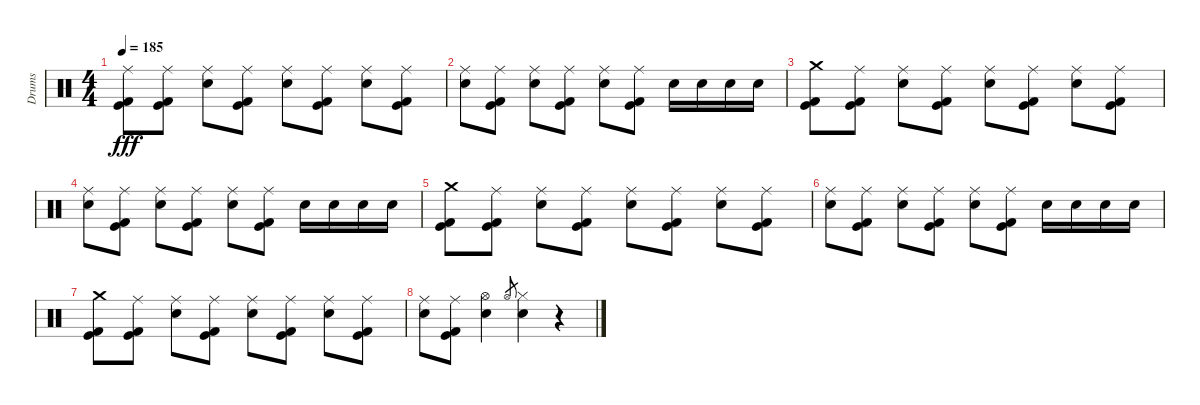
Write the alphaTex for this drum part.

\track ("Drums" "Drums") {instrument percussion}
\staff {score}
\articulation defaults
\ts (4 4)
\tempo 185
\clef neutral
\ks c
("Ride (middle)" "Kick (hit)" "Kick (hit) 2").8{dy fff} ("Ride (middle)" "Kick (hit)" "Kick (hit) 2").8 ("Ride (middle)" "Snare (hit) 2").8 ("Ride (middle)" "Kick (hit)" "Kick (hit) 2").8 ("Ride (middle)" "Snare (hit) 2").8 ("Ride (middle)" "Kick (hit)" "Kick (hit) 2").8 ("Ride (middle)" "Snare (hit) 2").8 ("Ride (middle)" "Kick (hit)" "Kick (hit) 2").8 |
("Ride (middle)" "Snare (hit) 2").8 ("Ride (middle)" "Kick (hit)" "Kick (hit) 2").8 ("Ride (middle)" "Snare (hit) 2").8 ("Ride (middle)" "Kick (hit)" "Kick (hit) 2").8 ("Ride (middle)" "Snare (hit) 2").8 ("Ride (middle)" "Kick (hit)" "Kick (hit) 2").8 "Snare (hit) 2".16 "Snare (hit) 2".16 "Snare (hit) 2".16 "Snare (hit) 2".16 |
("Crash medium (hit)" "Kick (hit)" "Kick (hit) 2").8 ("Ride (middle)" "Kick (hit)" "Kick (hit) 2").8 ("Ride (middle)" "Snare (hit) 2").8 ("Ride (middle)" "Kick (hit)" "Kick (hit) 2").8 ("Ride (middle)" "Snare (hit) 2").8 ("Ride (middle)" "Kick (hit)" "Kick (hit) 2").8 ("Ride (middle)" "Snare (hit) 2").8 ("Ride (middle)" "Kick (hit)" "Kick (hit) 2").8 |
("Ride (middle)" "Snare (hit) 2").8 ("Ride (middle)" "Kick (hit)" "Kick (hit) 2").8 ("Ride (middle)" "Snare (hit) 2").8 ("Ride (middle)" "Kick (hit)" "Kick (hit) 2").8 ("Ride (middle)" "Snare (hit) 2").8 ("Ride (middle)" "Kick (hit)" "Kick (hit) 2").8 "Snare (hit) 2".16 "Snare (hit) 2".16 "Snare (hit) 2".16 "Snare (hit) 2".16 |
("Crash medium (hit)" "Kick (hit)" "Kick (hit) 2").8 ("Ride (middle)" "Kick (hit)" "Kick (hit) 2").8 ("Ride (middle)" "Snare (hit) 2").8 ("Ride (middle)" "Kick (hit)" "Kick (hit) 2").8 ("Ride (middle)" "Snare (hit) 2").8 ("Ride (middle)" "Kick (hit)" "Kick (hit) 2").8 ("Ride (middle)" "Snare (hit) 2").8 ("Ride (middle)" "Kick (hit)" "Kick (hit) 2").8 |
("Ride (middle)" "Snare (hit) 2").8 ("Ride (middle)" "Kick (hit)" "Kick (hit) 2").8 ("Ride (middle)" "Snare (hit) 2").8 ("Ride (middle)" "Kick (hit)" "Kick (hit) 2").8 ("Ride (middle)" "Snare (hit) 2").8 ("Ride (middle)" "Kick (hit)" "Kick (hit) 2").8 "Snare (hit) 2".16 "Snare (hit) 2".16 "Snare (hit) 2".16 "Snare (hit) 2".16 |
("Crash medium (hit)" "Kick (hit)" "Kick (hit) 2").8 ("Ride (middle)" "Kick (hit)" "Kick (hit) 2").8 ("Ride (middle)" "Snare (hit) 2").8 ("Ride (middle)" "Kick (hit)" "Kick (hit) 2").8 ("Ride (middle)" "Snare (hit) 2").8 ("Ride (middle)" "Kick (hit)" "Kick (hit) 2").8 ("Ride (middle)" "Snare (hit) 2").8 ("Ride (middle)" "Kick (hit)" "Kick (hit) 2").8 |
("Ride (middle)" "Snare (hit) 2").8 ("Ride (middle)" "Kick (hit)" "Kick (hit) 2").8 ("Hi-Hat (open)" "Snare (hit) 2").4 "Hi-Hat (open)".8{gr} ("Hi-Hat (closed)" "Snare (hit) 2").4 r.4
